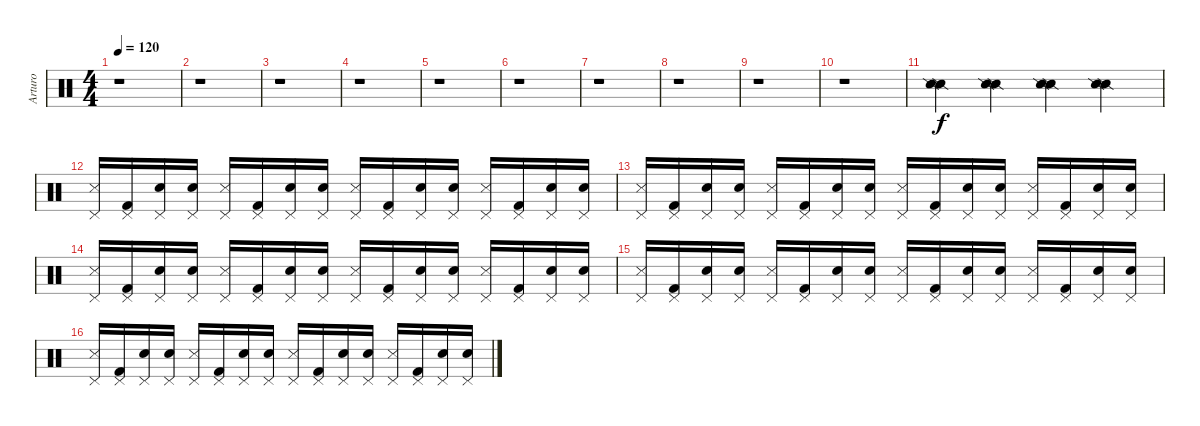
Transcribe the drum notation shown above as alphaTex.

\track ("Arturo" "Arturo") {instrument percussion}
\staff {score}
\articulation defaults
\ts (4 4)
\tempo 120
\clef neutral
\ks c
r.1{dy f} |
r.1 |
r.1 |
r.1 |
r.1 |
r.1 |
r.1 |
r.1 |
r.1 |
r.1 |
("Snare (side stick) 2" "Snare (side stick) 2").4 ("Snare (side stick) 2" "Snare (side stick) 2").4 ("Snare (side stick) 2" "Snare (side stick) 2").4 ("Snare (side stick) 2" "Snare (side stick) 2").4 |
("Pedal Hi-Hat (hit)" "Snare (side stick) 3").16 ("Pedal Hi-Hat (hit)" "Kick (hit) 2").16 ("Pedal Hi-Hat (hit)" "Electric Snare (hit)").16 ("Pedal Hi-Hat (hit)" "Electric Snare (hit)").16 ("Pedal Hi-Hat (hit)" "Snare (side stick) 3").16 ("Pedal Hi-Hat (hit)" "Kick (hit) 2").16 ("Pedal Hi-Hat (hit)" "Electric Snare (hit)").16 ("Pedal Hi-Hat (hit)" "Electric Snare (hit)").16 ("Pedal Hi-Hat (hit)" "Snare (side stick) 3").16 ("Pedal Hi-Hat (hit)" "Kick (hit) 2").16 ("Pedal Hi-Hat (hit)" "Electric Snare (hit)").16 ("Pedal Hi-Hat (hit)" "Electric Snare (hit)").16 ("Pedal Hi-Hat (hit)" "Snare (side stick) 3").16 ("Pedal Hi-Hat (hit)" "Kick (hit) 2").16 ("Pedal Hi-Hat (hit)" "Electric Snare (hit)").16 ("Pedal Hi-Hat (hit)" "Electric Snare (hit)").16 |
("Pedal Hi-Hat (hit)" "Snare (side stick) 3").16 ("Pedal Hi-Hat (hit)" "Kick (hit) 2").16 ("Pedal Hi-Hat (hit)" "Electric Snare (hit)").16 ("Pedal Hi-Hat (hit)" "Electric Snare (hit)").16 ("Pedal Hi-Hat (hit)" "Snare (side stick) 3").16 ("Pedal Hi-Hat (hit)" "Kick (hit) 2").16 ("Pedal Hi-Hat (hit)" "Electric Snare (hit)").16 ("Pedal Hi-Hat (hit)" "Electric Snare (hit)").16 ("Pedal Hi-Hat (hit)" "Snare (side stick) 3").16 ("Pedal Hi-Hat (hit)" "Kick (hit) 2").16 ("Pedal Hi-Hat (hit)" "Electric Snare (hit)").16 ("Pedal Hi-Hat (hit)" "Electric Snare (hit)").16 ("Pedal Hi-Hat (hit)" "Snare (side stick) 3").16 ("Pedal Hi-Hat (hit)" "Kick (hit) 2").16 ("Pedal Hi-Hat (hit)" "Electric Snare (hit)").16 ("Pedal Hi-Hat (hit)" "Electric Snare (hit)").16 |
("Pedal Hi-Hat (hit)" "Snare (side stick) 3").16 ("Pedal Hi-Hat (hit)" "Kick (hit) 2").16 ("Pedal Hi-Hat (hit)" "Electric Snare (hit)").16 ("Pedal Hi-Hat (hit)" "Electric Snare (hit)").16 ("Pedal Hi-Hat (hit)" "Snare (side stick) 3").16 ("Pedal Hi-Hat (hit)" "Kick (hit) 2").16 ("Pedal Hi-Hat (hit)" "Electric Snare (hit)").16 ("Pedal Hi-Hat (hit)" "Electric Snare (hit)").16 ("Pedal Hi-Hat (hit)" "Snare (side stick) 3").16 ("Pedal Hi-Hat (hit)" "Kick (hit) 2").16 ("Pedal Hi-Hat (hit)" "Electric Snare (hit)").16 ("Pedal Hi-Hat (hit)" "Electric Snare (hit)").16 ("Pedal Hi-Hat (hit)" "Snare (side stick) 3").16 ("Pedal Hi-Hat (hit)" "Kick (hit) 2").16 ("Pedal Hi-Hat (hit)" "Electric Snare (hit)").16 ("Pedal Hi-Hat (hit)" "Electric Snare (hit)").16 |
("Pedal Hi-Hat (hit)" "Snare (side stick) 3").16 ("Pedal Hi-Hat (hit)" "Kick (hit) 2").16 ("Pedal Hi-Hat (hit)" "Electric Snare (hit)").16 ("Pedal Hi-Hat (hit)" "Electric Snare (hit)").16 ("Pedal Hi-Hat (hit)" "Snare (side stick) 3").16 ("Pedal Hi-Hat (hit)" "Kick (hit) 2").16 ("Pedal Hi-Hat (hit)" "Electric Snare (hit)").16 ("Pedal Hi-Hat (hit)" "Electric Snare (hit)").16 ("Pedal Hi-Hat (hit)" "Snare (side stick) 3").16 ("Pedal Hi-Hat (hit)" "Kick (hit) 2").16 ("Pedal Hi-Hat (hit)" "Electric Snare (hit)").16 ("Pedal Hi-Hat (hit)" "Electric Snare (hit)").16 ("Pedal Hi-Hat (hit)" "Snare (side stick) 3").16 ("Pedal Hi-Hat (hit)" "Kick (hit) 2").16 ("Pedal Hi-Hat (hit)" "Electric Snare (hit)").16 ("Pedal Hi-Hat (hit)" "Electric Snare (hit)").16 |
("Pedal Hi-Hat (hit)" "Snare (side stick) 3").16 ("Pedal Hi-Hat (hit)" "Kick (hit) 2").16 ("Pedal Hi-Hat (hit)" "Electric Snare (hit)").16 ("Pedal Hi-Hat (hit)" "Electric Snare (hit)").16 ("Pedal Hi-Hat (hit)" "Snare (side stick) 3").16 ("Pedal Hi-Hat (hit)" "Kick (hit) 2").16 ("Pedal Hi-Hat (hit)" "Electric Snare (hit)").16 ("Pedal Hi-Hat (hit)" "Electric Snare (hit)").16 ("Pedal Hi-Hat (hit)" "Snare (side stick) 3").16 ("Pedal Hi-Hat (hit)" "Kick (hit) 2").16 ("Pedal Hi-Hat (hit)" "Electric Snare (hit)").16 ("Pedal Hi-Hat (hit)" "Electric Snare (hit)").16 ("Pedal Hi-Hat (hit)" "Snare (side stick) 3").16 ("Pedal Hi-Hat (hit)" "Kick (hit) 2").16 ("Pedal Hi-Hat (hit)" "Electric Snare (hit)").16 ("Pedal Hi-Hat (hit)" "Electric Snare (hit)").16
